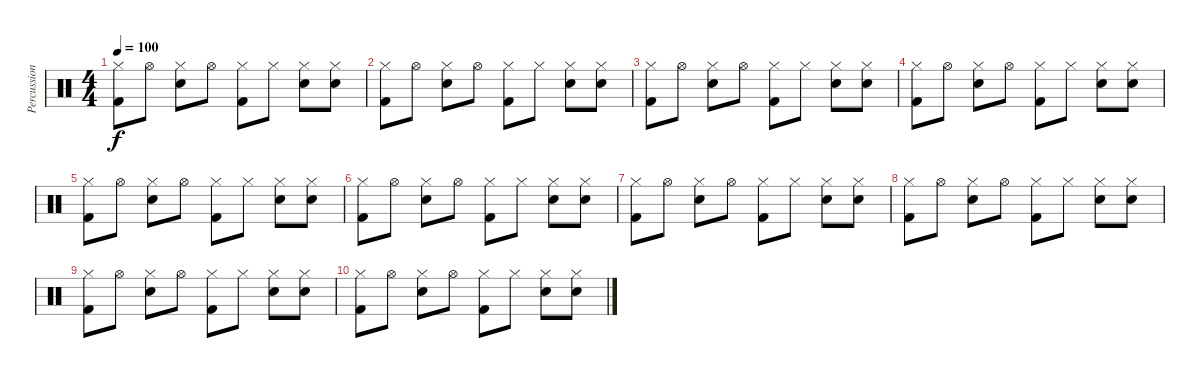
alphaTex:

\track ("Percussions" "Percussion") {instrument percussion}
\staff {score}
\articulation defaults
\ts (4 4)
\tempo 100
\clef neutral
\ks c
("Hi-Hat (closed)" "Kick (hit) 2").8{dy f} "Hi-Hat (open)".8 ("Hi-Hat (closed)" "Snare (hit) 2").8 "Hi-Hat (open)".8 ("Hi-Hat (closed)" "Kick (hit) 2").8 "Hi-Hat (closed)".8 ("Hi-Hat (closed)" "Snare (hit) 2").8 ("Hi-Hat (closed)" "Snare (hit) 2").8 |
("Hi-Hat (closed)" "Kick (hit) 2").8 "Hi-Hat (open)".8 ("Hi-Hat (closed)" "Snare (hit) 2").8 "Hi-Hat (open)".8 ("Hi-Hat (closed)" "Kick (hit) 2").8 "Hi-Hat (closed)".8 ("Hi-Hat (closed)" "Snare (hit) 2").8 ("Hi-Hat (closed)" "Snare (hit) 2").8 |
("Hi-Hat (closed)" "Kick (hit) 2").8 "Hi-Hat (open)".8 ("Hi-Hat (closed)" "Snare (hit) 2").8 "Hi-Hat (open)".8 ("Hi-Hat (closed)" "Kick (hit) 2").8 "Hi-Hat (closed)".8 ("Hi-Hat (closed)" "Snare (hit) 2").8 ("Hi-Hat (closed)" "Snare (hit) 2").8 |
("Hi-Hat (closed)" "Kick (hit) 2").8 "Hi-Hat (open)".8 ("Hi-Hat (closed)" "Snare (hit) 2").8 "Hi-Hat (open)".8 ("Hi-Hat (closed)" "Kick (hit) 2").8 "Hi-Hat (closed)".8 ("Hi-Hat (closed)" "Snare (hit) 2").8 ("Hi-Hat (closed)" "Snare (hit) 2").8 |
("Hi-Hat (closed)" "Kick (hit) 2").8 "Hi-Hat (open)".8 ("Hi-Hat (closed)" "Snare (hit) 2").8 "Hi-Hat (open)".8 ("Hi-Hat (closed)" "Kick (hit) 2").8 "Hi-Hat (closed)".8 ("Hi-Hat (closed)" "Snare (hit) 2").8 ("Hi-Hat (closed)" "Snare (hit) 2").8 |
("Hi-Hat (closed)" "Kick (hit) 2").8 "Hi-Hat (open)".8 ("Hi-Hat (closed)" "Snare (hit) 2").8 "Hi-Hat (open)".8 ("Hi-Hat (closed)" "Kick (hit) 2").8 "Hi-Hat (closed)".8 ("Hi-Hat (closed)" "Snare (hit) 2").8 ("Hi-Hat (closed)" "Snare (hit) 2").8 |
("Hi-Hat (closed)" "Kick (hit) 2").8 "Hi-Hat (open)".8 ("Hi-Hat (closed)" "Snare (hit) 2").8 "Hi-Hat (open)".8 ("Hi-Hat (closed)" "Kick (hit) 2").8 "Hi-Hat (closed)".8 ("Hi-Hat (closed)" "Snare (hit) 2").8 ("Hi-Hat (closed)" "Snare (hit) 2").8 |
("Hi-Hat (closed)" "Kick (hit) 2").8 "Hi-Hat (open)".8 ("Hi-Hat (closed)" "Snare (hit) 2").8 "Hi-Hat (open)".8 ("Hi-Hat (closed)" "Kick (hit) 2").8 "Hi-Hat (closed)".8 ("Hi-Hat (closed)" "Snare (hit) 2").8 ("Hi-Hat (closed)" "Snare (hit) 2").8 |
("Hi-Hat (closed)" "Kick (hit) 2").8 "Hi-Hat (open)".8 ("Hi-Hat (closed)" "Snare (hit) 2").8 "Hi-Hat (open)".8 ("Hi-Hat (closed)" "Kick (hit) 2").8 "Hi-Hat (closed)".8 ("Hi-Hat (closed)" "Snare (hit) 2").8 ("Hi-Hat (closed)" "Snare (hit) 2").8 |
("Hi-Hat (closed)" "Kick (hit) 2").8 "Hi-Hat (open)".8 ("Hi-Hat (closed)" "Snare (hit) 2").8 "Hi-Hat (open)".8 ("Hi-Hat (closed)" "Kick (hit) 2").8 "Hi-Hat (closed)".8 ("Hi-Hat (closed)" "Snare (hit) 2").8 ("Hi-Hat (closed)" "Snare (hit) 2").8
